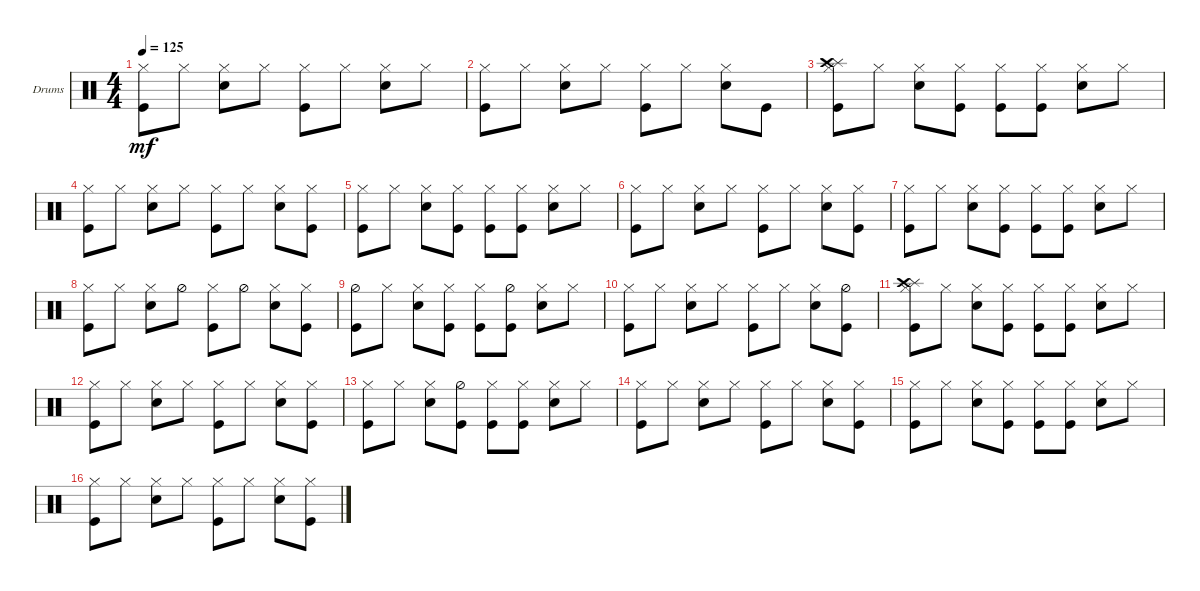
\defaultSystemsLayout 4
\bracketExtendMode groupsimilarinstruments
\firstSystemTrackNameOrientation horizontal
\otherSystemsTrackNameOrientation horizontal
\track ("Drumkit" "Drums") {instrument percussion}
\staff {score}
\articulation defaults
\ts (4 4)
\tempo 125
\clef neutral
\scale
0.333333
\ks c
("Kick (hit)" "Hi-Hat (closed)").8{dy mf} "Hi-Hat (closed)".8 ("Hi-Hat (closed)" "Snare (hit) 2").8 "Hi-Hat (closed)".8 ("Kick (hit)" "Hi-Hat (closed)").8 "Hi-Hat (closed)".8 ("Hi-Hat (closed)" "Snare (hit) 2").8 "Hi-Hat (closed)".8 |
\scale
0.333333 ("Kick (hit)" "Hi-Hat (closed)").8 "Hi-Hat (closed)".8 ("Hi-Hat (closed)" "Snare (hit) 2").8 "Hi-Hat (closed)".8 ("Kick (hit)" "Hi-Hat (closed)").8 "Hi-Hat (closed)".8 ("Hi-Hat (closed)" "Snare (hit) 2").8 "Kick (hit)".8 |
\scale
0.333333 ("Kick (hit)" "Hi-Hat (closed)" "Splash (hit)" "Crash high (hit)").8 "Hi-Hat (closed)".8 ("Hi-Hat (closed)" "Snare (hit) 2").8 ("Hi-Hat (closed)" "Kick (hit)").8 ("Kick (hit)" "Hi-Hat (closed)").8 ("Hi-Hat (closed)" "Kick (hit)").8 ("Hi-Hat (closed)" "Snare (hit) 2").8 "Hi-Hat (closed)".8 |
\scale
0.333333 ("Kick (hit)" "Hi-Hat (closed)").8 "Hi-Hat (closed)".8 ("Hi-Hat (closed)" "Snare (hit) 2").8 "Hi-Hat (closed)".8 ("Kick (hit)" "Hi-Hat (closed)").8 "Hi-Hat (closed)".8 ("Hi-Hat (closed)" "Snare (hit) 2").8 ("Hi-Hat (closed)" "Kick (hit)").8 |
\scale
0.333333 ("Kick (hit)" "Hi-Hat (closed)").8 "Hi-Hat (closed)".8 ("Hi-Hat (closed)" "Snare (hit) 2").8 ("Hi-Hat (closed)" "Kick (hit)").8 ("Kick (hit)" "Hi-Hat (closed)").8 ("Hi-Hat (closed)" "Kick (hit)").8 ("Hi-Hat (closed)" "Snare (hit) 2").8 "Hi-Hat (closed)".8 |
\scale
0.333333 ("Kick (hit)" "Hi-Hat (closed)").8 "Hi-Hat (closed)".8 ("Hi-Hat (closed)" "Snare (hit) 2").8 "Hi-Hat (closed)".8 ("Kick (hit)" "Hi-Hat (closed)").8 "Hi-Hat (closed)".8 ("Hi-Hat (closed)" "Snare (hit) 2").8 ("Hi-Hat (closed)" "Kick (hit)").8 |
\scale
0.333333 ("Kick (hit)" "Hi-Hat (closed)").8 "Hi-Hat (closed)".8 ("Hi-Hat (closed)" "Snare (hit) 2").8 ("Hi-Hat (closed)" "Kick (hit)").8 ("Kick (hit)" "Hi-Hat (closed)").8 ("Hi-Hat (closed)" "Kick (hit)").8 ("Hi-Hat (closed)" "Snare (hit) 2").8 "Hi-Hat (closed)".8 |
\scale
0.333333 ("Kick (hit)" "Hi-Hat (closed)").8 "Hi-Hat (closed)".8 ("Hi-Hat (closed)" "Snare (hit) 2").8 "Hi-Hat (half)".8 ("Kick (hit)" "Hi-Hat (closed)").8 "Hi-Hat (half)".8 ("Hi-Hat (closed)" "Snare (hit) 2").8 ("Hi-Hat (closed)" "Kick (hit)").8 |
("Kick (hit)" "Hi-Hat (half)").8 "Hi-Hat (closed)".8 ("Hi-Hat (closed)" "Snare (hit) 2").8 ("Hi-Hat (closed)" "Kick (hit)").8 ("Kick (hit)" "Hi-Hat (closed)").8 ("Hi-Hat (half)" "Kick (hit)").8 ("Hi-Hat (closed)" "Snare (hit) 2").8 "Hi-Hat (closed)".8 |
("Kick (hit)" "Hi-Hat (closed)").8 "Hi-Hat (closed)".8 ("Hi-Hat (closed)" "Snare (hit) 2").8 "Hi-Hat (closed)".8 ("Kick (hit)" "Hi-Hat (closed)").8 "Hi-Hat (closed)".8 ("Hi-Hat (closed)" "Snare (hit) 2").8 ("Hi-Hat (half)" "Kick (hit)").8 |
("Kick (hit)" "Hi-Hat (closed)" "Splash (hit)" "Crash high (hit)").8 "Hi-Hat (closed)".8 ("Hi-Hat (closed)" "Snare (hit) 2").8 ("Hi-Hat (closed)" "Kick (hit)").8 ("Kick (hit)" "Hi-Hat (closed)").8 ("Hi-Hat (closed)" "Kick (hit)").8 ("Hi-Hat (closed)" "Snare (hit) 2").8 "Hi-Hat (closed)".8 |
("Kick (hit)" "Hi-Hat (closed)").8 "Hi-Hat (closed)".8 ("Hi-Hat (closed)" "Snare (hit) 2").8 "Hi-Hat (closed)".8 ("Kick (hit)" "Hi-Hat (closed)").8 "Hi-Hat (closed)".8 ("Hi-Hat (closed)" "Snare (hit) 2").8 ("Hi-Hat (closed)" "Kick (hit)").8 |
("Kick (hit)" "Hi-Hat (closed)").8 "Hi-Hat (closed)".8 ("Hi-Hat (closed)" "Snare (hit) 2").8 ("Hi-Hat (half)" "Kick (hit)").8 ("Kick (hit)" "Hi-Hat (closed)").8 ("Hi-Hat (closed)" "Kick (hit)").8 ("Hi-Hat (closed)" "Snare (hit) 2").8 "Hi-Hat (closed)".8 |
("Kick (hit)" "Hi-Hat (closed)").8 "Hi-Hat (closed)".8 ("Hi-Hat (closed)" "Snare (hit) 2").8 "Hi-Hat (closed)".8 ("Kick (hit)" "Hi-Hat (closed)").8 "Hi-Hat (closed)".8 ("Hi-Hat (closed)" "Snare (hit) 2").8 ("Hi-Hat (closed)" "Kick (hit)").8 |
("Kick (hit)" "Hi-Hat (closed)").8 "Hi-Hat (closed)".8 ("Hi-Hat (closed)" "Snare (hit) 2").8 ("Hi-Hat (closed)" "Kick (hit)").8 ("Kick (hit)" "Hi-Hat (closed)").8 ("Hi-Hat (closed)" "Kick (hit)").8 ("Snare (hit) 2" "Hi-Hat (closed)").8 "Hi-Hat (closed)".8 |
("Kick (hit)" "Hi-Hat (closed)").8 "Hi-Hat (closed)".8 ("Hi-Hat (closed)" "Snare (hit) 2").8 "Hi-Hat (closed)".8 ("Kick (hit)" "Hi-Hat (closed)").8 "Hi-Hat (closed)".8 ("Hi-Hat (closed)" "Snare (hit) 2").8 ("Hi-Hat (closed)" "Kick (hit)").8
